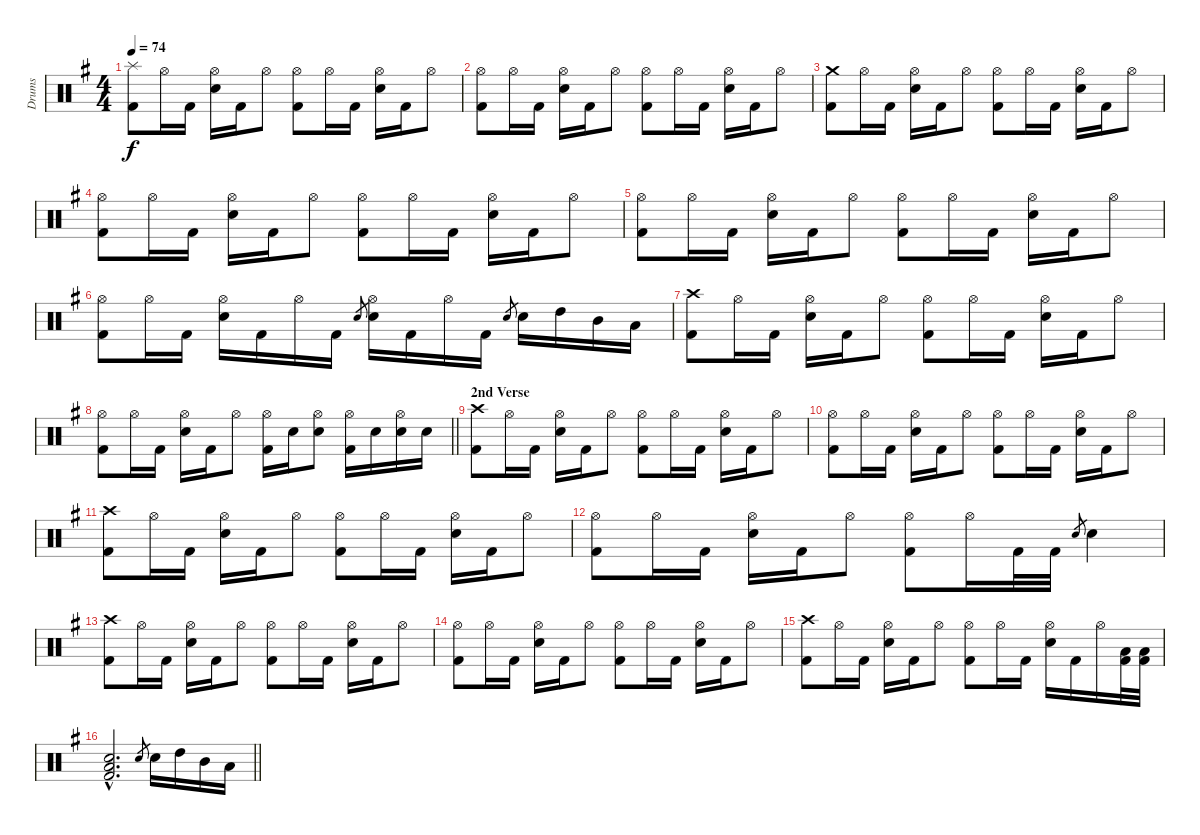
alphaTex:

\track ("Drums" "Drums") {instrument percussion}
\staff {score}
\articulation defaults
\ts (4 4)
\tempo 74
\clef neutral
\ks eminor
("Splash (hit)" "Kick (hit) 2").8{dy f} "Hi-Hat (open)".16 "Kick (hit) 2".16 ("Hi-Hat (open)" "Electric Snare (hit)").16 "Kick (hit) 2".16 "Hi-Hat (open)".8 ("Hi-Hat (open)" "Kick (hit) 2").8 "Hi-Hat (open)".16 "Kick (hit) 2".16 ("Hi-Hat (open)" "Electric Snare (hit)").16 "Kick (hit) 2".16 "Hi-Hat (open)".8 |
("Hi-Hat (open)" "Kick (hit) 2").8 "Hi-Hat (open)".16 "Kick (hit) 2".16 ("Hi-Hat (open)" "Electric Snare (hit)").16 "Kick (hit) 2".16 "Hi-Hat (open)".8 ("Hi-Hat (open)" "Kick (hit) 2").8 "Hi-Hat (open)".16 "Kick (hit) 2".16 ("Hi-Hat (open)" "Electric Snare (hit)").16 "Kick (hit) 2".16 "Hi-Hat (open)".8 |
("Crash medium (hit)" "Kick (hit) 2").8 "Hi-Hat (open)".16 "Kick (hit) 2".16 ("Hi-Hat (open)" "Electric Snare (hit)").16 "Kick (hit) 2".16 "Hi-Hat (open)".8 ("Hi-Hat (open)" "Kick (hit) 2").8 "Hi-Hat (open)".16 "Kick (hit) 2".16 ("Hi-Hat (open)" "Electric Snare (hit)").16 "Kick (hit) 2".16 "Hi-Hat (open)".8 |
("Hi-Hat (open)" "Kick (hit) 2").8 "Hi-Hat (open)".16 "Kick (hit) 2".16 ("Hi-Hat (open)" "Electric Snare (hit)").16 "Kick (hit) 2".16 "Hi-Hat (open)".8 ("Hi-Hat (open)" "Kick (hit) 2").8 "Hi-Hat (open)".16 "Kick (hit) 2".16 ("Hi-Hat (open)" "Electric Snare (hit)").16 "Kick (hit) 2".16 "Hi-Hat (open)".8 |
("Hi-Hat (open)" "Kick (hit) 2").8 "Hi-Hat (open)".16 "Kick (hit) 2".16 ("Hi-Hat (open)" "Electric Snare (hit)").16 "Kick (hit) 2".16 "Hi-Hat (open)".8 ("Hi-Hat (open)" "Kick (hit) 2").8 "Hi-Hat (open)".16 "Kick (hit) 2".16 ("Hi-Hat (open)" "Electric Snare (hit)").16 "Kick (hit) 2".16 "Hi-Hat (open)".8 |
("Hi-Hat (open)" "Kick (hit) 2").8 "Hi-Hat (open)".16 "Kick (hit) 2".16 ("Hi-Hat (open)" "Electric Snare (hit)").16 "Kick (hit) 2".16 "Hi-Hat (open)".16 "Kick (hit) 2".16 "Electric Snare (hit)".8{gr} ("Hi-Hat (open)" "Electric Snare (hit)").16 "Kick (hit) 2".16 "Hi-Hat (open)".16 "Kick (hit) 2".16 "Electric Snare (hit)".8{gr} "Electric Snare (hit)".16 "High Tom (hit)".16 "Mid Tom (hit)".16 "Low Tom (hit)".16 |
("Crash high (hit)" "Kick (hit) 2").8 "Hi-Hat (open)".16 "Kick (hit) 2".16 ("Hi-Hat (open)" "Electric Snare (hit)").16 "Kick (hit) 2".16 "Hi-Hat (open)".8 ("Hi-Hat (open)" "Kick (hit) 2").8 "Hi-Hat (open)".16 "Kick (hit) 2".16 ("Hi-Hat (open)" "Electric Snare (hit)").16 "Kick (hit) 2".16 "Hi-Hat (open)".8 |
\barLineRight lightlight
("Hi-Hat (open)" "Kick (hit) 2").8 "Hi-Hat (open)".16 "Kick (hit) 2".16 ("Hi-Hat (open)" "Electric Snare (hit)").16 "Kick (hit) 2".16 "Hi-Hat (open)".8 ("Hi-Hat (open)" "Kick (hit) 2").16 "Electric Snare (hit)".16 ("Hi-Hat (open)" "Electric Snare (hit)").8 ("Hi-Hat (open)" "Kick (hit) 2").16 "Electric Snare (hit)".16 ("Hi-Hat (open)" "Electric Snare (hit)").16 "Electric Snare (hit)".16 |
\section ("" "2nd Verse")
("Crash high (hit)" "Kick (hit) 2").8 "Hi-Hat (open)".16 "Kick (hit) 2".16 ("Hi-Hat (open)" "Electric Snare (hit)").16 "Kick (hit) 2".16 "Hi-Hat (open)".8 ("Hi-Hat (open)" "Kick (hit) 2").8 "Hi-Hat (open)".16 "Kick (hit) 2".16 ("Hi-Hat (open)" "Electric Snare (hit)").16 "Kick (hit) 2".16 "Hi-Hat (open)".8 |
("Hi-Hat (open)" "Kick (hit) 2").8 "Hi-Hat (open)".16 "Kick (hit) 2".16 ("Hi-Hat (open)" "Electric Snare (hit)").16 "Kick (hit) 2".16 "Hi-Hat (open)".8 ("Hi-Hat (open)" "Kick (hit) 2").8 "Hi-Hat (open)".16 "Kick (hit) 2".16 ("Hi-Hat (open)" "Electric Snare (hit)").16 "Kick (hit) 2".16 "Hi-Hat (open)".8 |
("Crash high (hit)" "Kick (hit) 2").8 "Hi-Hat (open)".16 "Kick (hit) 2".16 ("Hi-Hat (open)" "Electric Snare (hit)").16 "Kick (hit) 2".16 "Hi-Hat (open)".8 ("Hi-Hat (open)" "Kick (hit) 2").8 "Hi-Hat (open)".16 "Kick (hit) 2".16 ("Hi-Hat (open)" "Electric Snare (hit)").16 "Kick (hit) 2".16 "Hi-Hat (open)".8 |
("Hi-Hat (open)" "Kick (hit) 2").8 "Hi-Hat (open)".16 "Kick (hit) 2".16 ("Hi-Hat (open)" "Electric Snare (hit)").16 "Kick (hit) 2".16 "Hi-Hat (open)".8 ("Hi-Hat (open)" "Kick (hit) 2").8 "Hi-Hat (open)".16 "Kick (hit) 2".32 "Kick (hit) 2".32 "Electric Snare (hit)".8{gr} "Electric Snare (hit)".4 |
("Crash high (hit)" "Kick (hit) 2").8 "Hi-Hat (open)".16 "Kick (hit) 2".16 ("Hi-Hat (open)" "Electric Snare (hit)").16 "Kick (hit) 2".16 "Hi-Hat (open)".8 ("Hi-Hat (open)" "Kick (hit) 2").8 "Hi-Hat (open)".16 "Kick (hit) 2".16 ("Hi-Hat (open)" "Electric Snare (hit)").16 "Kick (hit) 2".16 "Hi-Hat (open)".8 |
("Hi-Hat (open)" "Kick (hit) 2").8 "Hi-Hat (open)".16 "Kick (hit) 2".16 ("Hi-Hat (open)" "Electric Snare (hit)").16 "Kick (hit) 2".16 "Hi-Hat (open)".8 ("Hi-Hat (open)" "Kick (hit) 2").8 "Hi-Hat (open)".16 "Kick (hit) 2".16 ("Hi-Hat (open)" "Electric Snare (hit)").16 "Kick (hit) 2".16 "Hi-Hat (open)".8 |
("Crash high (hit)" "Kick (hit) 2").8 "Hi-Hat (open)".16 "Kick (hit) 2".16 ("Hi-Hat (open)" "Electric Snare (hit)").16 "Kick (hit) 2".16 "Hi-Hat (open)".8 ("Hi-Hat (open)" "Kick (hit) 2").8 "Hi-Hat (open)".16 "Kick (hit) 2".16 ("Hi-Hat (open)" "Electric Snare (hit)").16 "Kick (hit) 2".16 "Hi-Hat (open)".16 ("Low Floor Tom (hit)" "Kick (hit) 2").32 ("Low Floor Tom (hit)" "Kick (hit) 2").32 |
\barLineRight lightlight
("Low Floor Tom (hit)"{hac} "Electric Snare (hit)"{hac} "Kick (hit) 2"{hac}).2{d} "Electric Snare (hit)".8{gr} "Electric Snare (hit)".16 "High Tom (hit)".16 "Mid Tom (hit)".16 "Low Tom (hit)".16
